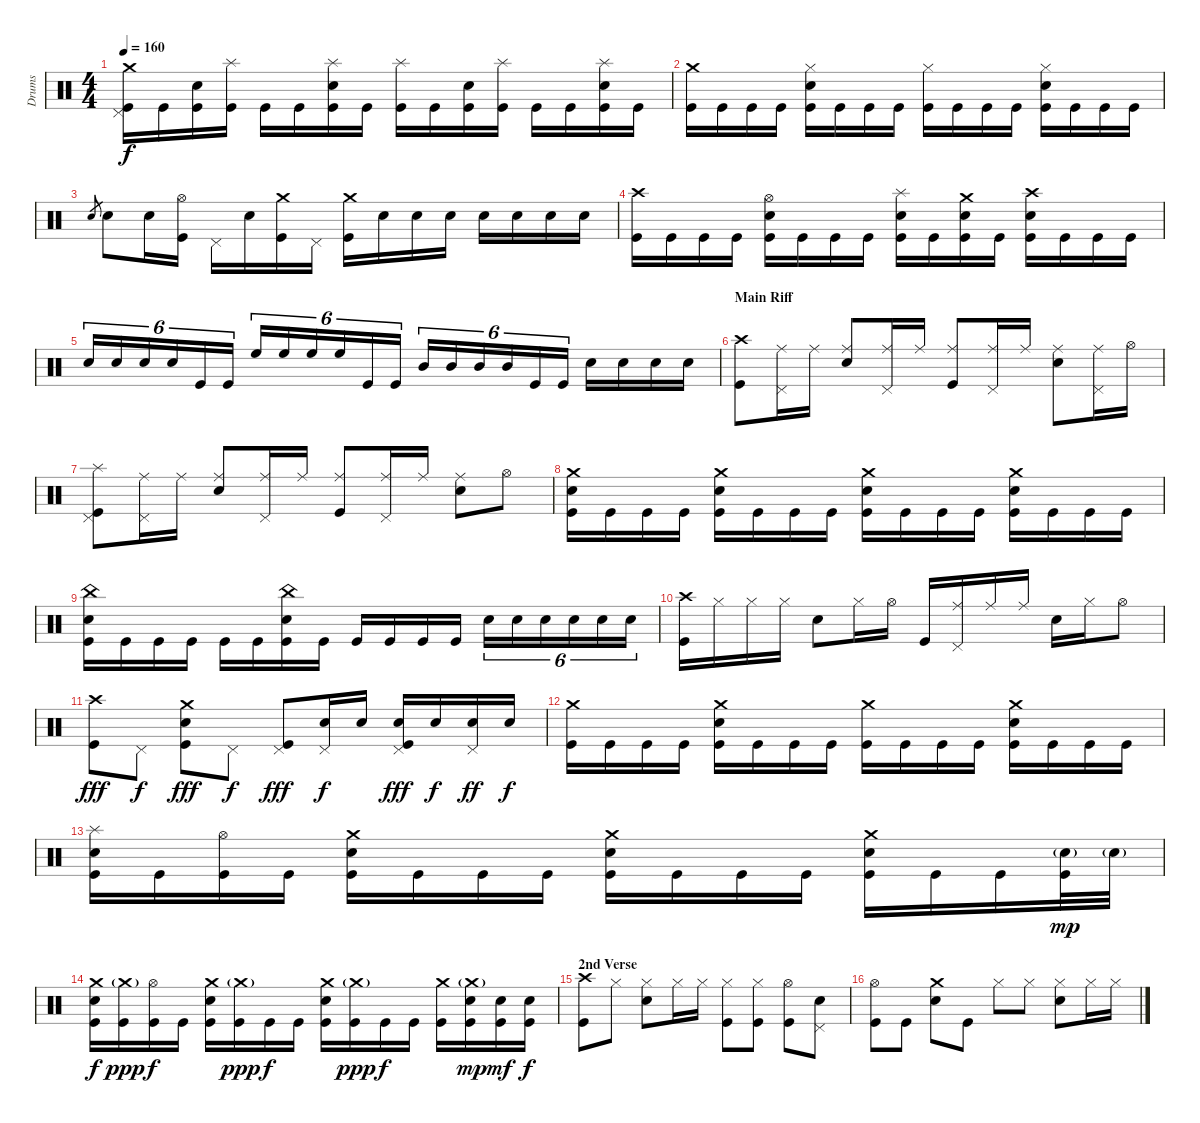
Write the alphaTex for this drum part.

\track ("Drums" "Drums") {instrument percussion}
\staff {score}
\articulation defaults
\ts (4 4)
\tempo 160
\clef neutral
\ks c
("Crash medium (hit)" "Pedal Hi-Hat (hit)" "Kick (hit)").16{dy f} "Kick (hit)".16 ("Electric Snare (hit)" "Kick (hit)").16 ("Splash (hit)" "Kick (hit)").16 "Kick (hit)".16 "Kick (hit)".16 ("Splash (hit)" "Electric Snare (hit)" "Kick (hit)").16 "Kick (hit)".16 ("Splash (hit)" "Kick (hit)").16 "Kick (hit)".16 ("Electric Snare (hit)" "Kick (hit)").16 ("Splash (hit)" "Kick (hit)").16 "Kick (hit)".16 "Kick (hit)".16 ("Splash (hit)" "Electric Snare (hit)" "Kick (hit)").16 "Kick (hit)".16 |
("Crash medium (hit)" "Kick (hit)").16 "Kick (hit)".16 "Kick (hit)".16 "Kick (hit)".16 ("Hi-Hat (closed)" "Electric Snare (hit)" "Kick (hit)").16 "Kick (hit)".16 "Kick (hit)".16 "Kick (hit)".16 ("Hi-Hat (closed)" "Kick (hit)").16 "Kick (hit)".16 "Kick (hit)".16 "Kick (hit)".16 ("Hi-Hat (closed)" "Electric Snare (hit)" "Kick (hit)").16 "Kick (hit)".16 "Kick (hit)".16 "Kick (hit)".16 |
"Electric Snare (hit)".8{gr} "Electric Snare (hit)".8 "Electric Snare (hit)".16 ("Hi-Hat (open)" "Kick (hit)").16 "Pedal Hi-Hat (hit)".16 "Electric Snare (hit)".16 ("Crash medium (hit)" "Kick (hit)").16 "Pedal Hi-Hat (hit)".16 ("Crash medium (hit)" "Kick (hit)").16 "Electric Snare (hit)".16 "Electric Snare (hit)".16 "Electric Snare (hit)".16 "Electric Snare (hit)".16 "Electric Snare (hit)".16 "Electric Snare (hit)".16 "Electric Snare (hit)".16 |
("Crash high (hit)" "Kick (hit)").16 "Kick (hit)".16 "Kick (hit)".16 "Kick (hit)".16 ("Hi-Hat (open)" "Electric Snare (hit)" "Kick (hit)").16 "Kick (hit)".16 "Kick (hit)".16 "Kick (hit)".16 ("Splash (hit)" "Electric Snare (hit)" "Kick (hit)").16 "Kick (hit)".16 ("Crash medium (hit)" "Electric Snare (hit)" "Kick (hit)").16 "Kick (hit)".16 ("Crash high (hit)" "Electric Snare (hit)" "Kick (hit)").16 "Kick (hit)".16 "Kick (hit)".16 "Kick (hit)".16 |
"Electric Snare (hit)".16{tu (6 4)} "Electric Snare (hit)".16{tu (6 4)} "Electric Snare (hit)".16{tu (6 4)} "Electric Snare (hit)".16{tu (6 4)} "Kick (hit)".16{tu (6 4)} "Kick (hit)".16{tu (6 4)} "High Floor Tom (hit)".16{tu (6 4)} "High Floor Tom (hit)".16{tu (6 4)} "High Floor Tom (hit)".16{tu (6 4)} "High Floor Tom (hit)".16{tu (6 4)} "Kick (hit)".16{tu (6 4)} "Kick (hit)".16{tu (6 4)} "Mid Tom (hit)".16{tu (6 4)} "Mid Tom (hit)".16{tu (6 4)} "Mid Tom (hit)".16{tu (6 4)} "Mid Tom (hit)".16{tu (6 4)} "Kick (hit)".16{tu (6 4)} "Kick (hit)".16{tu (6 4)} "Electric Snare (hit)".16 "Electric Snare (hit)".16 "Electric Snare (hit)".16 "Electric Snare (hit)".16 |
\section ("" "Main Riff")
("Crash high (hit)" "Kick (hit)").8 ("Ride (middle)" "Pedal Hi-Hat (hit)").16 "Ride (middle)".16 ("Ride (middle)" "Electric Snare (hit)").8 ("Ride (middle)" "Pedal Hi-Hat (hit)").16 "Ride (middle)".16 ("Ride (middle)" "Kick (hit)").8 ("Ride (middle)" "Pedal Hi-Hat (hit)").16 "Ride (middle)".16 ("Ride (middle)" "Electric Snare (hit)").8 ("Ride (middle)" "Pedal Hi-Hat (hit)").16 "Hi-Hat (open)".16 |
("Splash (hit)" "Pedal Hi-Hat (hit)" "Kick (hit)").8 ("Ride (middle)" "Pedal Hi-Hat (hit)").16 "Ride (middle)".16 ("Ride (middle)" "Electric Snare (hit)").8 ("Ride (middle)" "Pedal Hi-Hat (hit)").16 "Ride (middle)".16 ("Ride (middle)" "Kick (hit)").8 ("Ride (middle)" "Pedal Hi-Hat (hit)").16 "Ride (middle)".16 ("Ride (middle)" "Electric Snare (hit)").8 "Hi-Hat (open)".8 |
("Crash medium (hit)" "Electric Snare (hit)" "Kick (hit)").16 "Kick (hit)".16 "Kick (hit)".16 "Kick (hit)".16 ("Crash medium (hit)" "Electric Snare (hit)" "Kick (hit)").16 "Kick (hit)".16 "Kick (hit)".16 "Kick (hit)".16 ("Crash medium (hit)" "Electric Snare (hit)" "Kick (hit)").16 "Kick (hit)".16 "Kick (hit)".16 "Kick (hit)".16 ("Crash medium (hit)" "Electric Snare (hit)" "Kick (hit)").16 "Kick (hit)".16 "Kick (hit)".16 "Kick (hit)".16 |
("China (hit)" "Electric Snare (hit)" "Kick (hit)").16 "Kick (hit)".16 "Kick (hit)".16 "Kick (hit)".16 "Kick (hit)".16 "Kick (hit)".16 ("China (hit)" "Electric Snare (hit)" "Kick (hit)").16 "Kick (hit)".16 "Kick (hit)".16 "Kick (hit)".16 "Kick (hit)".16 "Kick (hit)".16 "Electric Snare (hit)".16{tu (6 4)} "Electric Snare (hit)".16{tu (6 4)} "Electric Snare (hit)".16{tu (6 4)} "Electric Snare (hit)".16{tu (6 4)} "Electric Snare (hit)".16{tu (6 4)} "Electric Snare (hit)".16{tu (6 4)} |
("Crash high (hit)" "Kick (hit)").16 "Hi-Hat (closed)".16 "Hi-Hat (closed)".16 "Hi-Hat (closed)".16 "Electric Snare (hit)".8 "Hi-Hat (closed)".16 "Hi-Hat (open)".16 "Kick (hit)".16 ("Ride (middle)" "Pedal Hi-Hat (hit)").16 "Ride (middle)".16 "Ride (middle)".16 "Electric Snare (hit)".16 "Hi-Hat (closed)".16 "Hi-Hat (open)".8 |
("Crash high (hit)" "Kick (hit)").8{dy fff} "Pedal Hi-Hat (hit)".8{dy f} ("Crash medium (hit)" "Electric Snare (hit)" "Kick (hit)").8{dy fff} "Pedal Hi-Hat (hit)".8{dy f} ("Pedal Hi-Hat (hit)" "Kick (hit)").8{dy fff} ("Pedal Hi-Hat (hit)" "Electric Snare (hit)").16{dy f} "Electric Snare (hit)".16 ("Pedal Hi-Hat (hit)" "Electric Snare (hit)" "Kick (hit)").16{dy fff} "Electric Snare (hit)".16{dy f} ("Pedal Hi-Hat (hit)" "Electric Snare (hit)").16{dy ff} "Electric Snare (hit)".16{dy f} |
("Crash medium (hit)" "Kick (hit)").16 "Kick (hit)".16 "Kick (hit)".16 "Kick (hit)".16 ("Crash medium (hit)" "Electric Snare (hit)" "Kick (hit)").16 "Kick (hit)".16 "Kick (hit)".16 "Kick (hit)".16 ("Crash medium (hit)" "Kick (hit)").16 "Kick (hit)".16 "Kick (hit)".16 "Kick (hit)".16 ("Crash medium (hit)" "Electric Snare (hit)" "Kick (hit)").16 "Kick (hit)".16 "Kick (hit)".16 "Kick (hit)".16 |
("Splash (hit)" "Electric Snare (hit)" "Kick (hit)").16 "Kick (hit)".16 ("Hi-Hat (open)" "Kick (hit)").16 "Kick (hit)".16 ("Crash medium (hit)" "Electric Snare (hit)" "Kick (hit)").16 "Kick (hit)".16 "Kick (hit)".16 "Kick (hit)".16 ("Crash medium (hit)" "Electric Snare (hit)" "Kick (hit)").16 "Kick (hit)".16 "Kick (hit)".16 "Kick (hit)".16 ("Crash medium (hit)" "Electric Snare (hit)" "Kick (hit)").16 "Kick (hit)".16 "Kick (hit)".16 ("Electric Snare (hit)"{g} "Kick (hit)").32{dy mp} "Electric Snare (hit)"{g}.32 |
("Crash medium (hit)" "Electric Snare (hit)" "Kick (hit)").16{dy f} ("Crash medium (hit)"{g} "Kick (hit)").16{dy ppp} ("Hi-Hat (open)" "Kick (hit)").16{dy f} "Kick (hit)".16 ("Crash medium (hit)" "Electric Snare (hit)" "Kick (hit)").16 ("Crash medium (hit)"{g} "Kick (hit)").16{dy ppp} "Kick (hit)".16{dy f} "Kick (hit)".16 ("Crash medium (hit)" "Electric Snare (hit)" "Kick (hit)").16 ("Crash medium (hit)"{g} "Kick (hit)").16{dy ppp} "Kick (hit)".16{dy f} "Kick (hit)".16 ("Crash medium (hit)" "Kick (hit)").16 ("Crash medium (hit)"{g} "Electric Snare (hit)" "Kick (hit)").16{dy mp} ("Electric Snare (hit)" "Kick (hit)").16{dy mf} ("Electric Snare (hit)" "Kick (hit)").16{dy f} |
\section ("" "2nd Verse")
("Crash high (hit)" "Kick (hit)").8 "Hi-Hat (closed)".8 ("Hi-Hat (closed)" "Electric Snare (hit)").8 "Hi-Hat (closed)".16 "Hi-Hat (closed)".16 ("Hi-Hat (closed)" "Kick (hit)").8 ("Hi-Hat (closed)" "Kick (hit)").8 ("Hi-Hat (open)" "Kick (hit)").8 ("Electric Snare (hit)" "Pedal Hi-Hat (hit)").8 |
("Hi-Hat (open)" "Kick (hit)").8 "Kick (hit)".8 ("Crash medium (hit)" "Electric Snare (hit)").8 "Kick (hit)".8 "Hi-Hat (closed)".8 "Hi-Hat (closed)".8 ("Hi-Hat (closed)" "Electric Snare (hit)").8 "Hi-Hat (closed)".16 "Hi-Hat (closed)".16
